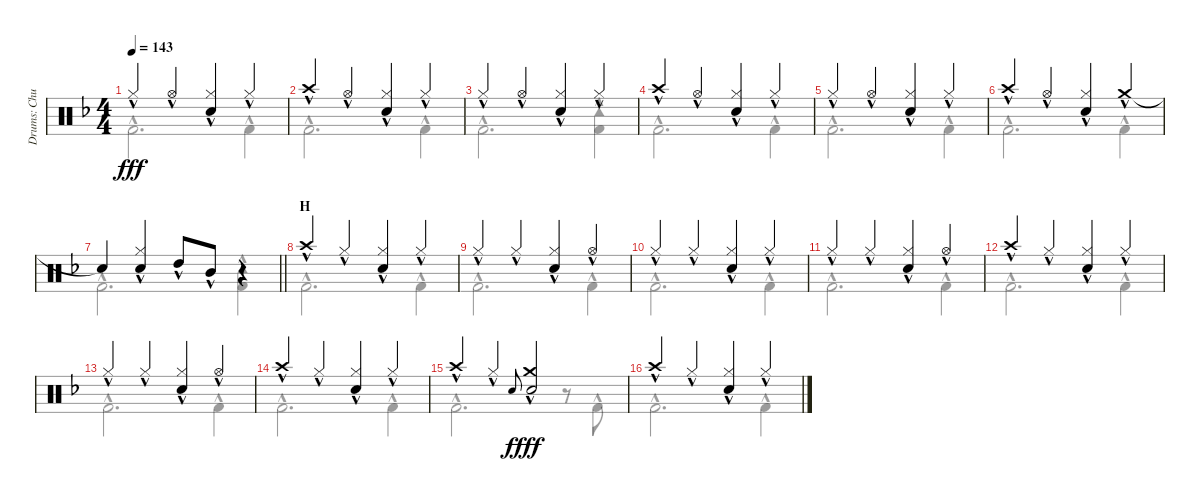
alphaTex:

\track ("Drums: Chuck" "Drums: Chu") {instrument percussion}
\staff {score}
\articulation defaults
\voice
\ts (4 4)
\tempo 143
\clef neutral
\ks f "Hi-Hat (closed)"{hac}.4{dy fff} "Hi-Hat (open)"{hac}.4
("Hi-Hat (closed)"{hac} "Snare (hit) 2"{hac}).4 "Hi-Hat (closed)"{hac}.4 |
"Crash high (hit)"{hac}.4 "Hi-Hat (open)"{hac}.4 ("Hi-Hat (closed)"{hac} "Snare (hit) 2"{hac}).4 "Hi-Hat (closed)"{hac}.4 |
"Hi-Hat (closed)"{hac}.4 "Hi-Hat (open)"{hac}.4 ("Hi-Hat (closed)"{hac} "Snare (hit) 2"{hac}).4 "Hi-Hat (closed)"{hac}.4 |
"Crash high (hit)"{hac}.4 "Hi-Hat (open)"{hac}.4 ("Hi-Hat (closed)"{hac} "Snare (hit) 2"{hac}).4 "Hi-Hat (closed)"{hac}.4 |
"Hi-Hat (closed)"{hac}.4 "Hi-Hat (open)"{hac}.4 ("Hi-Hat (closed)"{hac} "Snare (hit) 2"{hac}).4 "Hi-Hat (closed)"{hac}.4 |
"Crash high (hit)"{hac}.4 "Hi-Hat (open)"{hac}.4 ("Hi-Hat (closed)"{hac} "Snare (hit) 2"{hac}).4 "Crash medium (hit)"{hac}.4 |
\barLineRight lightlight "Snare (hit)"{t}.4
("Hi-Hat (closed)"{hac} "Snare (hit) 2"{hac}).4 "High Tom (hit)"{hac}.8 "Mid Tom (hit)"{hac}.8 r.4 |
\section ("" "H")
"Crash high (hit)"{hac}.4 "Hi-Hat (closed)"{hac}.4 ("Hi-Hat (closed)"{hac} "Snare (hit) 2"{hac}).4 "Hi-Hat (closed)"{hac}.4 |
"Hi-Hat (closed)"{hac}.4 "Hi-Hat (closed)"{hac}.4 ("Hi-Hat (closed)"{hac} "Snare (hit) 2"{hac}).4 "Hi-Hat (open)"{hac}.4 |
"Hi-Hat (closed)"{hac}.4 "Hi-Hat (closed)"{hac}.4 ("Hi-Hat (closed)"{hac} "Snare (hit) 2"{hac}).4 "Hi-Hat (closed)"{hac}.4 |
"Hi-Hat (closed)"{hac}.4 "Hi-Hat (closed)"{hac}.4 ("Hi-Hat (closed)"{hac} "Snare (hit) 2"{hac}).4 "Hi-Hat (open)"{hac}.4 |
"Crash high (hit)"{hac}.4 "Hi-Hat (closed)"{hac}.4 ("Hi-Hat (closed)"{hac} "Snare (hit) 2"{hac}).4 "Hi-Hat (closed)"{hac}.4 |
"Hi-Hat (closed)"{hac}.4 "Hi-Hat (closed)"{hac}.4 ("Hi-Hat (closed)"{hac} "Snare (hit) 2"{hac}).4 "Hi-Hat (open)"{hac}.4 |
"Crash high (hit)"{hac}.4 "Hi-Hat (closed)"{hac}.4 ("Hi-Hat (closed)"{hac} "Snare (hit) 2"{hac}).4 "Hi-Hat (closed)"{hac}.4 |
"Crash high (hit)"{hac}.4 "Hi-Hat (closed)"{hac}.4 "Electric Snare (hit)".8{gr onbeat dy f} ("Crash medium (hit)"{hac} "Snare (hit) 2"{hac}).2{dy fff} |
"Crash high (hit)"{hac}.4 "Hi-Hat (closed)"{hac}.4 ("Hi-Hat (closed)"{hac} "Snare (hit) 2"{hac}).4 "Hi-Hat (closed)"{hac}.4
\voice
\clef neutral
\ottava regular
\simile none
\ks f "Kick (hit) 2"{hac}.2{d dy fff} "Kick (hit) 2"{hac}.4
|
"Kick (hit) 2"{hac}.2{d} "Kick (hit) 2"{hac}.4 |
"Kick (hit) 2"{hac}.2{d} ("Tambourine (hit)"{hac} "Kick (hit) 2"{hac}).4 |
"Kick (hit) 2"{hac}.2{d} "Kick (hit) 2"{hac}.4 |
"Kick (hit) 2"{hac}.2{d} "Kick (hit) 2"{hac}.4 |
"Kick (hit) 2"{hac}.2{d} "Kick (hit) 2"{hac}.4 |
\barLineRight lightlight "Kick (hit) 2"{hac}.2{d}
("Tambourine (hit)"{hac} "Kick (hit) 2"{hac}).4 |
"Kick (hit) 2"{hac}.2{d} "Kick (hit) 2"{hac}.4 |
"Kick (hit) 2"{hac}.2{d} "Kick (hit) 2"{hac}.4 |
"Kick (hit) 2"{hac}.2{d} "Kick (hit) 2"{hac}.4 |
"Kick (hit) 2"{hac}.2{d} "Kick (hit) 2"{hac}.4 |
"Kick (hit) 2"{hac}.2{d} "Kick (hit) 2"{hac}.4 |
"Kick (hit) 2"{hac}.2{d} "Kick (hit) 2"{hac}.4 |
"Kick (hit) 2"{hac}.2{d} "Kick (hit) 2"{hac}.4 |
"Kick (hit) 2"{hac}.2{d} r.8 "Kick (hit) 2"{hac}.8 |
"Kick (hit) 2"{hac}.2{d} "Kick (hit) 2"{hac}.4
